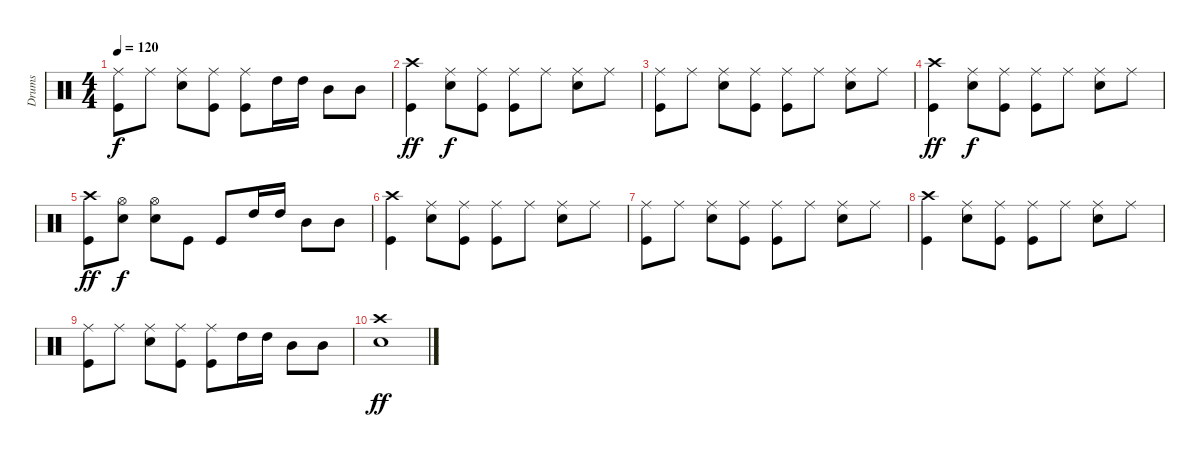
\track ("Drums" "Drums") {instrument percussion}
\staff {score}
\articulation defaults
\ts (4 4)
\tempo 120
\clef neutral
\ks c
("Kick (hit)" "Ride (middle)").8{dy f} "Ride (middle)".8 ("Snare (hit) 2" "Ride (middle)").8 ("Kick (hit)" "Ride (middle)").8 ("Kick (hit)" "Ride (middle)").8 "High Tom (hit)".16 "High Tom (hit)".16 "Mid Tom (hit)".8 "Mid Tom (hit)".8 |
("Kick (hit)" "Crash high (hit)").4{dy ff} ("Snare (hit) 2" "Ride (middle)").8{dy f} ("Kick (hit)" "Ride (middle)").8 ("Kick (hit)" "Ride (middle)").8 "Ride (middle)".8 ("Snare (hit) 2" "Ride (middle)").8 "Ride (middle)".8 |
("Kick (hit)" "Ride (middle)").8 "Ride (middle)".8 ("Snare (hit) 2" "Ride (middle)").8 ("Kick (hit)" "Ride (middle)").8 ("Kick (hit)" "Ride (middle)").8 "Ride (middle)".8 ("Snare (hit) 2" "Ride (middle)").8 "Ride (middle)".8 |
("Kick (hit)" "Crash high (hit)").4{dy ff} ("Snare (hit) 2" "Ride (middle)").8{dy f} ("Kick (hit)" "Ride (middle)").8 ("Kick (hit)" "Ride (middle)").8 "Ride (middle)".8 ("Snare (hit) 2" "Ride (middle)").8 "Ride (middle)".8 |
("Kick (hit)" "Crash high (hit)").8{dy ff} ("Snare (hit) 2" "Hi-Hat (open)").8{dy f} ("Snare (hit) 2" "Hi-Hat (open)").8 "Kick (hit)".8 "Kick (hit)".8 "High Tom (hit)".16 "High Tom (hit)".16 "Mid Tom (hit)".8 "Mid Tom (hit)".8 |
("Kick (hit)" "Crash high (hit)").4 ("Snare (hit) 2" "Ride (middle)").8 ("Kick (hit)" "Ride (middle)").8 ("Kick (hit)" "Ride (middle)").8 "Ride (middle)".8 ("Snare (hit) 2" "Ride (middle)").8 "Ride (middle)".8 |
("Kick (hit)" "Ride (middle)").8 "Ride (middle)".8 ("Snare (hit) 2" "Ride (middle)").8 ("Kick (hit)" "Ride (middle)").8 ("Kick (hit)" "Ride (middle)").8 "Ride (middle)".8 ("Snare (hit) 2" "Ride (middle)").8 "Ride (middle)".8 |
("Kick (hit)" "Crash high (hit)").4 ("Snare (hit) 2" "Ride (middle)").8 ("Kick (hit)" "Ride (middle)").8 ("Kick (hit)" "Ride (middle)").8 "Ride (middle)".8 ("Snare (hit) 2" "Ride (middle)").8 "Ride (middle)".8 |
("Kick (hit)" "Ride (middle)").8 "Ride (middle)".8 ("Snare (hit) 2" "Ride (middle)").8 ("Kick (hit)" "Ride (middle)").8 ("Kick (hit)" "Ride (middle)").8 "High Tom (hit)".16 "High Tom (hit)".16 "Mid Tom (hit)".8 "Mid Tom (hit)".8 |
("Snare (hit) 2" "Crash high (hit)").1{dy ff}
